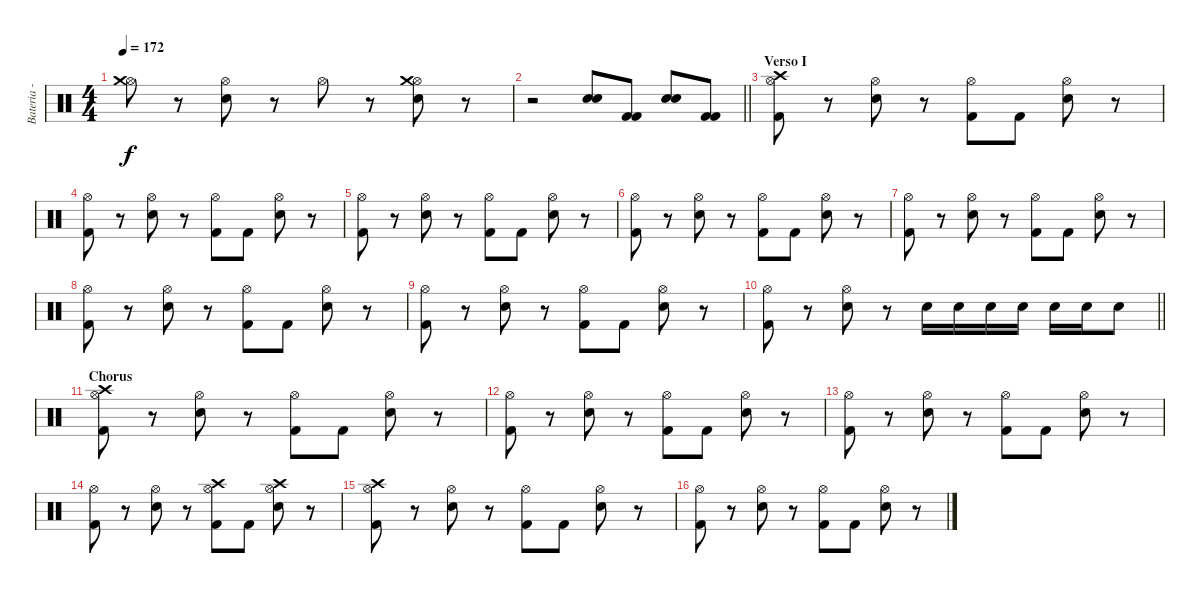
\track ("Bateria - Larzon" "Bateria - ") {instrument percussion}
\staff {score}
\articulation defaults
\ts (4 4)
\tempo 172
\clef neutral
\ks c
("Hi-Hat (open)" "Crash medium (hit)").8{dy f} r.8 ("Snare (hit) 2" "Hi-Hat (open)").8 r.8 "Hi-Hat (open)".8 r.8 ("Snare (hit) 2" "Hi-Hat (open)" "Crash medium (hit)").8 r.8 |
\barLineRight lightlight
r.2 ("Snare (hit) 2" "Snare (hit) 2").8 ("Kick (hit) 2" "Kick (hit) 2").8 ("Snare (hit) 2" "Snare (hit) 2").8 ("Kick (hit) 2" "Kick (hit) 2").8 |
\section ("" "Verso I")
("Kick (hit) 2" "Hi-Hat (open)" "Crash high (hit)").8 r.8 ("Snare (hit) 2" "Hi-Hat (open)").8 r.8 ("Kick (hit) 2" "Hi-Hat (open)").8 "Kick (hit) 2".8 ("Snare (hit) 2" "Hi-Hat (open)").8 r.8 |
("Kick (hit) 2" "Hi-Hat (open)").8 r.8 ("Snare (hit) 2" "Hi-Hat (open)").8 r.8 ("Kick (hit) 2" "Hi-Hat (open)").8 "Kick (hit) 2".8 ("Snare (hit) 2" "Hi-Hat (open)").8 r.8 |
("Kick (hit) 2" "Hi-Hat (open)").8 r.8 ("Snare (hit) 2" "Hi-Hat (open)").8 r.8 ("Kick (hit) 2" "Hi-Hat (open)").8 "Kick (hit) 2".8 ("Snare (hit) 2" "Hi-Hat (open)").8 r.8 |
("Kick (hit) 2" "Hi-Hat (open)").8 r.8 ("Snare (hit) 2" "Hi-Hat (open)").8 r.8 ("Kick (hit) 2" "Hi-Hat (open)").8 "Kick (hit) 2".8 ("Snare (hit) 2" "Hi-Hat (open)").8 r.8 |
("Kick (hit) 2" "Hi-Hat (open)").8 r.8 ("Snare (hit) 2" "Hi-Hat (open)").8 r.8 ("Kick (hit) 2" "Hi-Hat (open)").8 "Kick (hit) 2".8 ("Snare (hit) 2" "Hi-Hat (open)").8 r.8 |
("Kick (hit) 2" "Hi-Hat (open)").8 r.8 ("Snare (hit) 2" "Hi-Hat (open)").8 r.8 ("Kick (hit) 2" "Hi-Hat (open)").8 "Kick (hit) 2".8 ("Snare (hit) 2" "Hi-Hat (open)").8 r.8 |
("Kick (hit) 2" "Hi-Hat (open)").8 r.8 ("Snare (hit) 2" "Hi-Hat (open)").8 r.8 ("Kick (hit) 2" "Hi-Hat (open)").8 "Kick (hit) 2".8 ("Snare (hit) 2" "Hi-Hat (open)").8 r.8 |
\barLineRight lightlight
("Kick (hit) 2" "Hi-Hat (open)").8 r.8 ("Snare (hit) 2" "Hi-Hat (open)").8 r.8 "Snare (hit) 2".16 "Snare (hit) 2".16 "Snare (hit) 2".16 "Snare (hit) 2".16 "Snare (hit) 2".16 "Snare (hit) 2".16 "Snare (hit) 2".8 |
\section ("" "Chorus")
("Kick (hit) 2" "Hi-Hat (open)" "Crash high (hit)").8 r.8 ("Snare (hit) 2" "Hi-Hat (open)").8 r.8 ("Kick (hit) 2" "Hi-Hat (open)").8 "Kick (hit) 2".8 ("Snare (hit) 2" "Hi-Hat (open)").8 r.8 |
("Kick (hit) 2" "Hi-Hat (open)").8 r.8 ("Snare (hit) 2" "Hi-Hat (open)").8 r.8 ("Kick (hit) 2" "Hi-Hat (open)").8 "Kick (hit) 2".8 ("Snare (hit) 2" "Hi-Hat (open)").8 r.8 |
("Kick (hit) 2" "Hi-Hat (open)").8 r.8 ("Snare (hit) 2" "Hi-Hat (open)").8 r.8 ("Kick (hit) 2" "Hi-Hat (open)").8 "Kick (hit) 2".8 ("Snare (hit) 2" "Hi-Hat (open)").8 r.8 |
("Kick (hit) 2" "Hi-Hat (open)").8 r.8 ("Snare (hit) 2" "Hi-Hat (open)").8 r.8 ("Kick (hit) 2" "Hi-Hat (open)" "Crash high (hit)").8 "Kick (hit) 2".8 ("Snare (hit) 2" "Hi-Hat (open)" "Crash high (hit)").8 r.8 |
("Kick (hit) 2" "Hi-Hat (open)" "Crash high (hit)").8 r.8 ("Snare (hit) 2" "Hi-Hat (open)").8 r.8 ("Kick (hit) 2" "Hi-Hat (open)").8 "Kick (hit) 2".8 ("Snare (hit) 2" "Hi-Hat (open)").8 r.8 |
("Kick (hit) 2" "Hi-Hat (open)").8 r.8 ("Snare (hit) 2" "Hi-Hat (open)").8 r.8 ("Kick (hit) 2" "Hi-Hat (open)").8 "Kick (hit) 2".8 ("Snare (hit) 2" "Hi-Hat (open)").8 r.8
